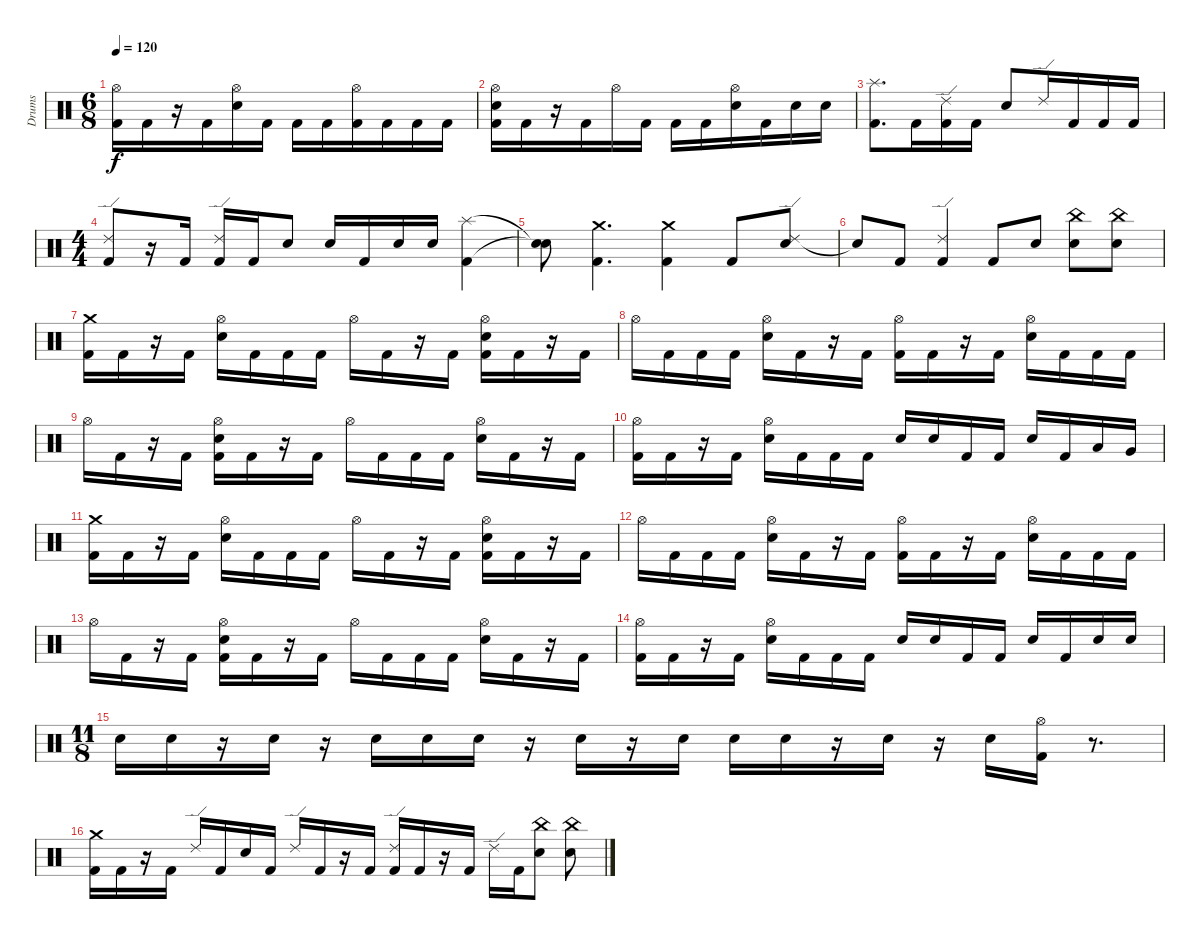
\track ("Drums" "Drums") {instrument percussion}
\staff {score}
\articulation defaults
\ts (6 8)
\tempo 120
\clef neutral
\ks c
("Hi-Hat (open)" "Kick (hit) 2").16{dy f} "Kick (hit) 2".16 r.16 "Kick (hit) 2".16 ("Electric Snare (hit)" "Hi-Hat (open)").16 "Kick (hit) 2".16 "Kick (hit) 2".16 "Kick (hit) 2".16 ("Hi-Hat (open)" "Kick (hit) 2").16 "Kick (hit) 2".16 "Kick (hit) 2".16 "Kick (hit) 2".16 |
("Electric Snare (hit)" "Hi-Hat (open)" "Kick (hit) 2").16 "Kick (hit) 2".16 r.16 "Kick (hit) 2".16 "Hi-Hat (open)".16 "Kick (hit) 2".16 "Kick (hit) 2".16 "Kick (hit) 2".16 ("Electric Snare (hit)" "Hi-Hat (open)").16 "Kick (hit) 2".16 "Electric Snare (hit)".16 "Electric Snare (hit)".16 |
("Splash (hit)" "Kick (hit) 2").8{d} "Kick (hit) 2".16 ("Ride (edge) 2" "Kick (hit) 2").16 "Kick (hit) 2".16 "Electric Snare (hit)".8 "Ride (edge) 2".16 "Kick (hit) 2".16 "Kick (hit) 2".16 "Kick (hit) 2".16 |
\ts (4 4)
("Ride (edge) 2" "Kick (hit) 2").8 r.16 "Kick (hit) 2".16 ("Ride (edge) 2" "Kick (hit) 2").16 "Kick (hit) 2".16 "Electric Snare (hit)".8 "Electric Snare (hit)".16 "Kick (hit) 2".16 "Electric Snare (hit)".16 "Electric Snare (hit)".16 ("Splash (hit)" "Kick (hit) 2").4 |
("Snare (hit)"{t} "Snare (hit)"{t}).8 ("Crash medium (hit)" "Kick (hit) 2").4{d} ("Crash medium (hit)" "Kick (hit) 2").4 "Kick (hit) 2".8 ("Ride (edge) 2" "Electric Snare (hit)").8 |
"Snare (hit)"{t}.8 "Kick (hit) 2".8 ("Ride (edge) 2" "Kick (hit) 2").4 "Kick (hit) 2".8 "Electric Snare (hit)".8 ("China (hit)" "Electric Snare (hit)").8 ("China (hit)" "Electric Snare (hit)").8 |
("Kick (hit) 2" "Crash medium (hit)").16 "Kick (hit) 2".16 r.16 "Kick (hit) 2".16 ("Hi-Hat (open)" "Electric Snare (hit)").16 "Kick (hit) 2".16 "Kick (hit) 2".16 "Kick (hit) 2".16 "Hi-Hat (open)".16 "Kick (hit) 2".16 r.16 "Kick (hit) 2".16 ("Kick (hit) 2" "Hi-Hat (open)" "Electric Snare (hit)").16 "Kick (hit) 2".16 r.16 "Kick (hit) 2".16 |
"Hi-Hat (open)".16 "Kick (hit) 2".16 "Kick (hit) 2".16 "Kick (hit) 2".16 ("Electric Snare (hit)" "Hi-Hat (open)").16 "Kick (hit) 2".16 r.16 "Kick (hit) 2".16 ("Hi-Hat (open)" "Kick (hit) 2").16 "Kick (hit) 2".16 r.16 "Kick (hit) 2".16 ("Electric Snare (hit)" "Hi-Hat (open)").16 "Kick (hit) 2".16 "Kick (hit) 2".16 "Kick (hit) 2".16 |
"Hi-Hat (open)".16 "Kick (hit) 2".16 r.16 "Kick (hit) 2".16 ("Electric Snare (hit)" "Kick (hit) 2" "Hi-Hat (open)").16 "Kick (hit) 2".16 r.16 "Kick (hit) 2".16 "Hi-Hat (open)".16 "Kick (hit) 2".16 "Kick (hit) 2".16 "Kick (hit) 2".16 ("Electric Snare (hit)" "Hi-Hat (open)").16 "Kick (hit) 2".16 r.16 "Kick (hit) 2".16 |
("Hi-Hat (open)" "Kick (hit) 2").16 "Kick (hit) 2".16 r.16 "Kick (hit) 2".16 ("Hi-Hat (open)" "Electric Snare (hit)").16 "Kick (hit) 2".16 "Kick (hit) 2".16 "Kick (hit) 2".16 "Electric Snare (hit)".16 "Electric Snare (hit)".16 "Kick (hit) 2".16 "Kick (hit) 2".16 "Electric Snare (hit)".16 "Kick (hit) 2".16 "Low Tom (hit)".16 "Very Low Tom (hit)".16 |
("Kick (hit) 2" "Crash medium (hit)").16 "Kick (hit) 2".16 r.16 "Kick (hit) 2".16 ("Hi-Hat (open)" "Electric Snare (hit)").16 "Kick (hit) 2".16 "Kick (hit) 2".16 "Kick (hit) 2".16 "Hi-Hat (open)".16 "Kick (hit) 2".16 r.16 "Kick (hit) 2".16 ("Kick (hit) 2" "Hi-Hat (open)" "Electric Snare (hit)").16 "Kick (hit) 2".16 r.16 "Kick (hit) 2".16 |
"Hi-Hat (open)".16 "Kick (hit) 2".16 "Kick (hit) 2".16 "Kick (hit) 2".16 ("Electric Snare (hit)" "Hi-Hat (open)").16 "Kick (hit) 2".16 r.16 "Kick (hit) 2".16 ("Hi-Hat (open)" "Kick (hit) 2").16 "Kick (hit) 2".16 r.16 "Kick (hit) 2".16 ("Electric Snare (hit)" "Hi-Hat (open)").16 "Kick (hit) 2".16 "Kick (hit) 2".16 "Kick (hit) 2".16 |
"Hi-Hat (open)".16 "Kick (hit) 2".16 r.16 "Kick (hit) 2".16 ("Electric Snare (hit)" "Kick (hit) 2" "Hi-Hat (open)").16 "Kick (hit) 2".16 r.16 "Kick (hit) 2".16 "Hi-Hat (open)".16 "Kick (hit) 2".16 "Kick (hit) 2".16 "Kick (hit) 2".16 ("Electric Snare (hit)" "Hi-Hat (open)").16 "Kick (hit) 2".16 r.16 "Kick (hit) 2".16 |
("Hi-Hat (open)" "Kick (hit) 2").16 "Kick (hit) 2".16 r.16 "Kick (hit) 2".16 ("Hi-Hat (open)" "Electric Snare (hit)").16 "Kick (hit) 2".16 "Kick (hit) 2".16 "Kick (hit) 2".16 "Electric Snare (hit)".16 "Electric Snare (hit)".16 "Kick (hit) 2".16 "Kick (hit) 2".16 "Electric Snare (hit)".16 "Kick (hit) 2".16 "Electric Snare (hit)".16 "Electric Snare (hit)".16 |
\ts (11 8)
"Electric Snare (hit)".16 "Electric Snare (hit)".16 r.16 "Electric Snare (hit)".16 r.16 "Electric Snare (hit)".16 "Electric Snare (hit)".16 "Electric Snare (hit)".16 r.16 "Electric Snare (hit)".16 r.16 "Electric Snare (hit)".16 "Electric Snare (hit)".16 "Electric Snare (hit)".16 r.16 "Electric Snare (hit)".16 r.16 "Electric Snare (hit)".16 ("Hi-Hat (open)" "Kick (hit) 2").16 r.8{d} |
("Crash medium (hit)" "Kick (hit) 2").16 "Kick (hit) 2".16 r.16 "Kick (hit) 2".16 "Ride (edge) 2".16 "Kick (hit) 2".16 "Electric Snare (hit)".16 "Kick (hit) 2".16 "Ride (edge) 2".16 "Kick (hit) 2".16 r.16 "Kick (hit) 2".16 ("Ride (edge) 2" "Kick (hit) 2").16 "Kick (hit) 2".16 r.16 "Kick (hit) 2".16 "Ride (edge) 2".16 "Kick (hit) 2".16 ("China (hit)" "Electric Snare (hit)").8 ("China (hit)" "Electric Snare (hit)").8
